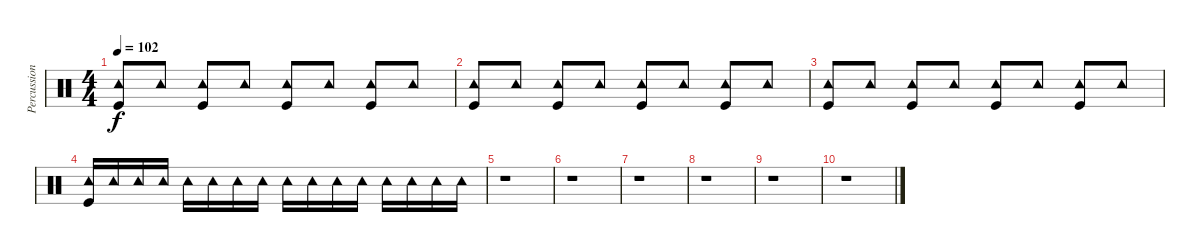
\track ("Percussion" "Percussion") {instrument percussion}
\staff {score}
\articulation defaults
\ts (4 4)
\tempo 102
\clef neutral
\ks c
("Tambourine (hit)" "Kick (hit)").8{dy f} "Tambourine (hit)".8 ("Tambourine (hit)" "Kick (hit)").8 "Tambourine (hit)".8 ("Tambourine (hit)" "Kick (hit)").8 "Tambourine (hit)".8 ("Tambourine (hit)" "Kick (hit)").8 "Tambourine (hit)".8 |
("Tambourine (hit)" "Kick (hit)").8 "Tambourine (hit)".8 ("Tambourine (hit)" "Kick (hit)").8 "Tambourine (hit)".8 ("Tambourine (hit)" "Kick (hit)").8 "Tambourine (hit)".8 ("Tambourine (hit)" "Kick (hit)").8 "Tambourine (hit)".8 |
("Tambourine (hit)" "Kick (hit)").8 "Tambourine (hit)".8 ("Tambourine (hit)" "Kick (hit)").8 "Tambourine (hit)".8 ("Tambourine (hit)" "Kick (hit)").8 "Tambourine (hit)".8 ("Tambourine (hit)" "Kick (hit)").8 "Tambourine (hit)".8 |
("Tambourine (hit)" "Kick (hit)").16{volume 1} "Tambourine (hit)".16 "Tambourine (hit)".16 "Tambourine (hit)".16 "Tambourine (hit)".16 "Tambourine (hit)".16 "Tambourine (hit)".16 "Tambourine (hit)".16 "Tambourine (hit)".16 "Tambourine (hit)".16 "Tambourine (hit)".16 "Tambourine (hit)".16 "Tambourine (hit)".16 "Tambourine (hit)".16 "Tambourine (hit)".16 "Tambourine (hit)".16 |
r.1 |
r.1 |
r.1 |
r.1 |
r.1 |
r.1
